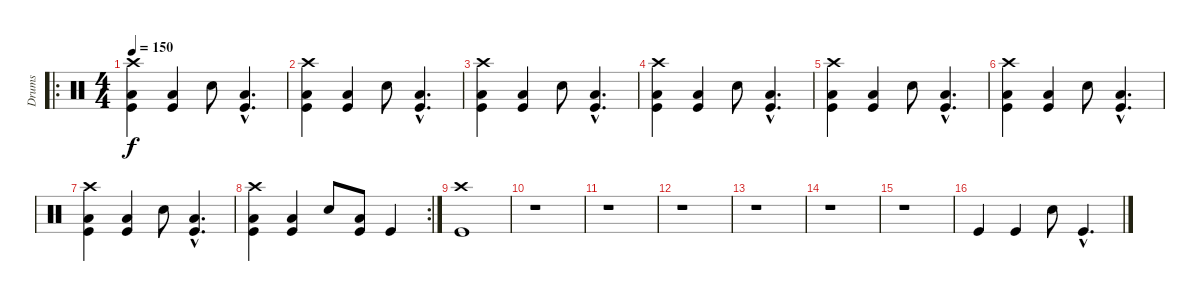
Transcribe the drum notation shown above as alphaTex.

\track ("Drums" "Drums") {instrument percussion}
\staff {score}
\articulation defaults
\ro
\ts (4 4)
\tempo 150
\clef neutral
\ks c
("Crash high (hit)" "Low Floor Tom (hit)" "Kick (hit)").4{dy f} ("Low Floor Tom (hit)" "Kick (hit)").4 "Snare (hit) 2".8 ("Low Floor Tom (hit)"{hac} "Kick (hit)"{hac}).4{d} |
("Crash high (hit)" "Low Floor Tom (hit)" "Kick (hit)").4 ("Low Floor Tom (hit)" "Kick (hit)").4 "Snare (hit) 2".8 ("Low Floor Tom (hit)"{hac} "Kick (hit)"{hac}).4{d} |
("Crash high (hit)" "Low Floor Tom (hit)" "Kick (hit)").4 ("Low Floor Tom (hit)" "Kick (hit)").4 "Snare (hit) 2".8 ("Low Floor Tom (hit)"{hac} "Kick (hit)"{hac}).4{d} |
("Crash high (hit)" "Low Floor Tom (hit)" "Kick (hit)").4 ("Low Floor Tom (hit)" "Kick (hit)").4 "Snare (hit) 2".8 ("Low Floor Tom (hit)"{hac} "Kick (hit)"{hac}).4{d} |
("Crash high (hit)" "Low Floor Tom (hit)" "Kick (hit)").4 ("Low Floor Tom (hit)" "Kick (hit)").4 "Snare (hit) 2".8 ("Low Floor Tom (hit)"{hac} "Kick (hit)"{hac}).4{d} |
("Crash high (hit)" "Low Floor Tom (hit)" "Kick (hit)").4 ("Low Floor Tom (hit)" "Kick (hit)").4 "Snare (hit) 2".8 ("Low Floor Tom (hit)"{hac} "Kick (hit)"{hac}).4{d} |
("Crash high (hit)" "Low Floor Tom (hit)" "Kick (hit)").4 ("Low Floor Tom (hit)" "Kick (hit)").4 "Snare (hit) 2".8 ("Low Floor Tom (hit)"{hac} "Kick (hit)"{hac}).4{d} |
\rc 2
("Crash high (hit)" "Low Floor Tom (hit)" "Kick (hit)").4 ("Low Floor Tom (hit)" "Kick (hit)").4 "Snare (hit) 2".8 ("Low Floor Tom (hit)" "Kick (hit)").8 "Kick (hit)".4 |
("Crash high (hit)" "Kick (hit)").1 |
r.1 |
r.1 |
r.1 |
r.1 |
r.1 |
r.1 |
"Kick (hit)".4 "Kick (hit)".4 "Snare (hit) 2".8 "Kick (hit)"{hac}.4{d}
